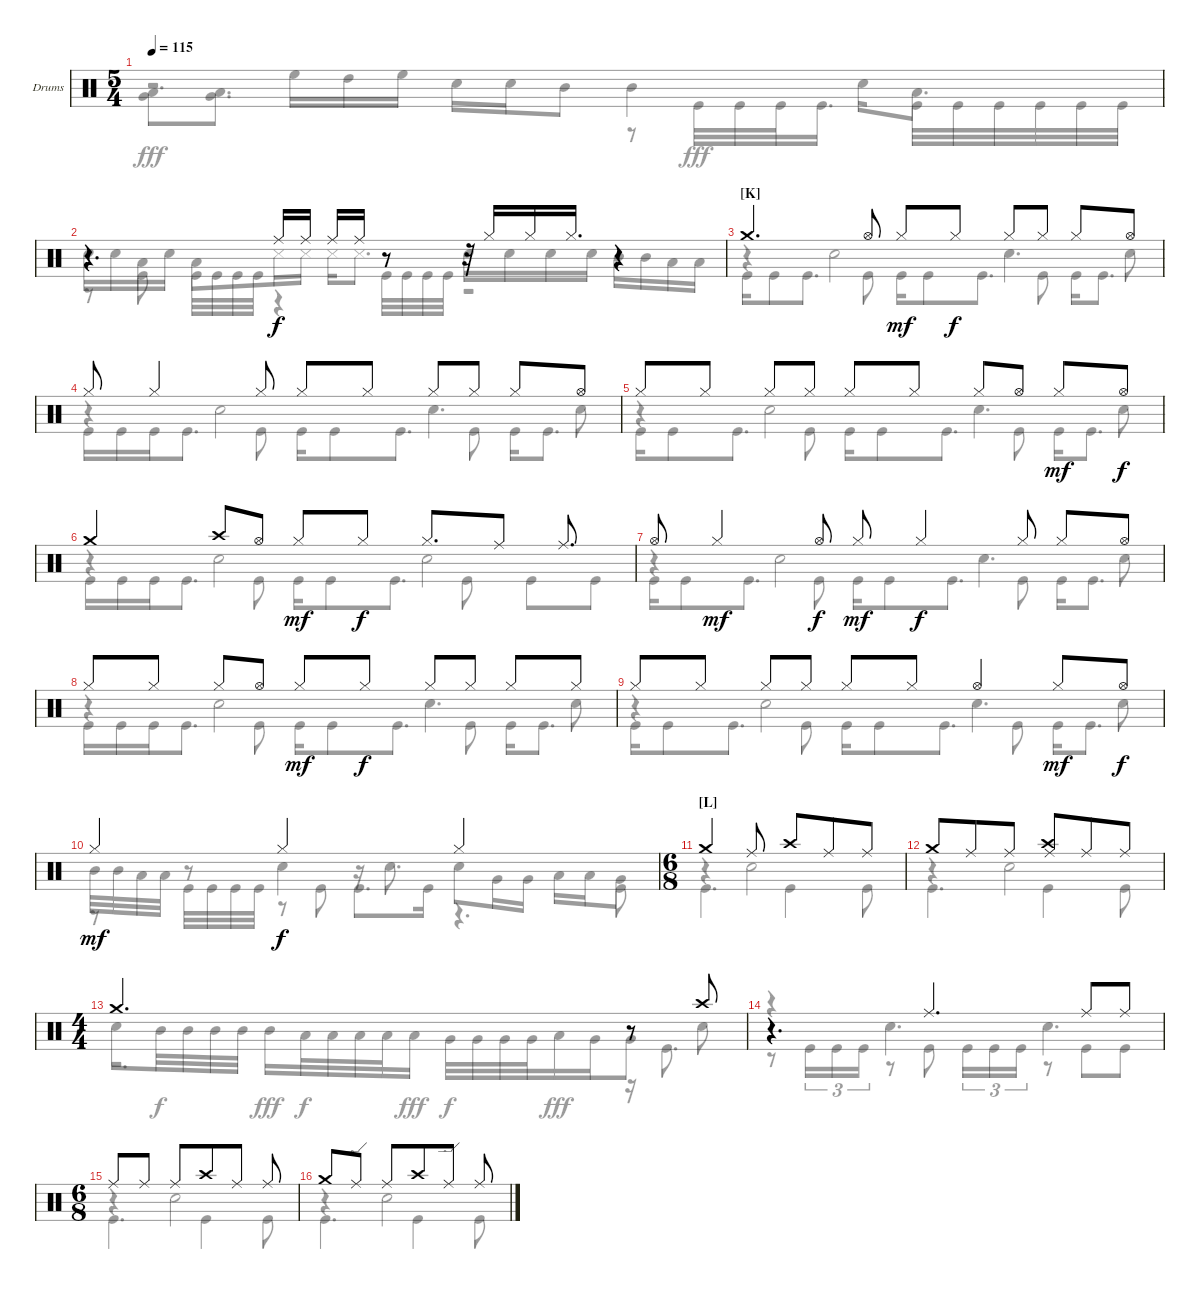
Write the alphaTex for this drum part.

\defaultSystemsLayout 4
\bracketExtendMode groupsimilarinstruments
\firstSystemTrackNameOrientation horizontal
\otherSystemsTrackNameOrientation horizontal
\track ("Drumkit" "Drums") {instrument percussion}
\staff {score}
\articulation defaults
\voice
\ts (5 4)
\tempo 115
\clef neutral
\ks c
|
r.4{d} "Ride (middle)".16 "Ride (middle)".16 "Ride (middle)".16 "Ride (middle)".16 r.8 r.32 "Hi-Hat (closed)".16 "Hi-Hat (closed)".16 "Hi-Hat (closed)".16{d} r.4 |
\section ("K" "")
"Crash medium (hit)".4{d} "Hi-Hat (open)".8 "Hi-Hat (closed)".8{dy mf} "Hi-Hat (closed)".8{dy f} "Hi-Hat (closed)".8 "Hi-Hat (closed)".8 "Hi-Hat (closed)".8 "Hi-Hat (open)".8 |
"Hi-Hat (closed)".8 "Hi-Hat (closed)".4 "Hi-Hat (closed)".8 "Hi-Hat (closed)".8 "Hi-Hat (closed)".8 "Hi-Hat (closed)".8 "Hi-Hat (closed)".8 "Hi-Hat (closed)".8 "Hi-Hat (open)".8 |
"Hi-Hat (closed)".8 "Hi-Hat (closed)".8 "Hi-Hat (closed)".8 "Hi-Hat (closed)".8 "Hi-Hat (closed)".8 "Hi-Hat (closed)".8 "Hi-Hat (closed)".8 "Hi-Hat (open)".8 "Hi-Hat (closed)".8{dy mf} "Hi-Hat (open)".8{dy f} |
"Crash medium (hit)".4 "Crash high (hit)".8 "Hi-Hat (open)".8 "Hi-Hat (closed)".8{dy mf} "Hi-Hat (closed)".8{dy f} "Hi-Hat (closed)".8{d} "Ride (middle)".8 "Ride (middle)".8{d} |
"Hi-Hat (open)".8 "Hi-Hat (closed)".4{dy mf} "Hi-Hat (open)".8{dy f} "Hi-Hat (closed)".8{dy mf} "Hi-Hat (closed)".4{dy f} "Hi-Hat (closed)".8 "Hi-Hat (closed)".8 "Hi-Hat (open)".8 |
"Hi-Hat (closed)".8 "Hi-Hat (closed)".8 "Hi-Hat (closed)".8 "Hi-Hat (open)".8 "Hi-Hat (closed)".8{dy mf} "Hi-Hat (closed)".8{dy f} "Hi-Hat (closed)".8 "Hi-Hat (closed)".8 "Hi-Hat (closed)".8 "Hi-Hat (closed)".8 |
"Hi-Hat (closed)".8 "Hi-Hat (closed)".8 "Hi-Hat (closed)".8 "Hi-Hat (closed)".8 "Hi-Hat (closed)".8 "Hi-Hat (closed)".8 "Hi-Hat (open)".4 "Hi-Hat (closed)".8{dy mf} "Hi-Hat (open)".8{dy f} |
"Hi-Hat (closed)".4{dy mf} "Hi-Hat (closed)".2{dy f} "Hi-Hat (closed)".2 |
\ts (6 8)
\section ("L" "")
"Crash medium (hit)".4 "Ride (middle)".8 "Crash high (hit)".8 "Ride (middle)".8 "Ride (middle)".8 |
"Crash medium (hit)".8 "Ride (middle)".8 "Ride (middle)".8 ("Crash high (hit)" "Ride (middle)").8 "Ride (middle)".8 "Ride (middle)".8 |
\ts (4 4)
\beaming (8 2 2 3 1)
"Crash medium (hit)".2{d} r.8 "Crash high (hit)".8 |
\beaming (8 2 3 3)
r.4{d} "Ride (middle)".4{d} "Ride (middle)".8 "Ride (middle)".8 |
\ts (6 8)
"Ride (middle)".8 "Ride (middle)".8 "Ride (middle)".8 "Crash high (hit)".8 "Ride (middle)".8 "Ride (middle)".8 |
"Crash medium (hit)".8 "Ride (edge)".8 "Ride (middle)".8 "Crash high (hit)".8 "Ride (edge)".8 "Ride (middle)".8
\voice
\clef neutral
\ottava regular
\simile none
\ks c
("Low Tom (hit)" "Very Low Tom (hit)").8{dy fff} ("Low Tom (hit)" "Very Low Tom (hit)").8{d} "High Floor Tom (hit)".16 "High Tom (hit)".16 "High Floor Tom (hit)".16 "Snare (hit) 2".16 "Snare (hit) 2".16 "Mid Tom (hit)".8 "Mid Tom (hit)".4 "Snare (hit) 2".16 "Low Tom (hit)".8{d} |
"Snare (hit) 2".16 "Snare (hit) 2".16 "Low Tom (hit)".16 "Snare (hit) 2".16 "Low Tom (hit)".8 "Snare (side stick) 3".16 "Snare (side stick) 3".16 "Snare (side stick) 3".16 "Snare (side stick) 3".8{d} "Snare (hit) 2".16 "Snare (hit) 2".16 "Snare (hit) 2".16 "Snare (hit) 2".16 "Mid Tom (hit)".16 "Mid Tom (hit)".16 "Low Tom (hit)".16 "Low Tom (hit)".16 |
r.4 "Snare (hit) 2".2 "Snare (hit) 2".4{d} "Snare (hit) 2".8 |
r.4 "Snare (hit) 2".2 "Snare (hit) 2".4{d} "Snare (hit) 2".8 |
r.4 "Snare (hit) 2".2 "Snare (hit) 2".4{d} "Snare (hit) 2".8 |
r.4 "Snare (hit) 2".2 "Snare (hit) 2".2 |
r.4 "Snare (hit) 2".2 "Snare (hit) 2".4{d} "Snare (hit) 2".8 |
r.4 "Snare (hit) 2".2 "Snare (hit) 2".4{d} "Snare (hit) 2".8 |
r.4 "Snare (hit) 2".2 "Snare (hit) 2".4{d} "Snare (hit) 2".8 |
"Mid Tom (hit)".32 "Mid Tom (hit)".32 "Low Tom (hit)".32 "Low Tom (hit)".32 r.8 "Snare (hit) 2".4 r.16 "Snare (hit) 2".8{d} "Snare (hit) 2".8 "Very Low Tom (hit)".16 "Very Low Tom (hit)".16 "Low Tom (hit)".16 "Low Tom (hit)".16 "Very Low Tom (hit)".8 |
r.4 "Snare (hit) 2".2 |
r.4 "Snare (hit) 2".2 |
"Snare (hit) 2".8 "Mid Tom (hit)".32{dy f} "Mid Tom (hit)".32 "Mid Tom (hit)".32 "Mid Tom (hit)".32 "Mid Tom (hit)".16{dy fff} "Low Tom (hit)".32{dy f} "Low Tom (hit)".32 "Low Tom (hit)".32 "Low Tom (hit)".32 "Low Tom (hit)".16{dy fff} "Very Low Tom (hit)".32{dy f} "Very Low Tom (hit)".32 "Very Low Tom (hit)".32 "Very Low Tom (hit)".32 "Low Tom (hit)".16{dy fff} "Very Low Tom (hit)".16 "Very Low Tom (hit)".8 "Snare (hit) 2".8 |
r.4 "Snare (hit) 2".4{d} "Snare (hit) 2".4{d} |
r.4 "Snare (hit) 2".2 |
r.4 "Snare (hit) 2".2
\voice
\clef neutral
\ottava regular
\simile none
\ks c
r.2{d dy fff} r.8 "Kick (hit)".32 "Kick (hit)".32 "Kick (hit)".32 "Kick (hit)".16{d} "Kick (hit)".32 "Kick (hit)".32 "Kick (hit)".32 "Kick (hit)".32 "Kick (hit)".32 "Kick (hit)".32 |
r.8 "Kick (hit)".8 "Kick (hit)".32 "Kick (hit)".32 "Kick (hit)".32 "Kick (hit)".32 r.4 "Kick (hit)".32 "Kick (hit)".32 "Kick (hit)".32 "Kick (hit)".32 r.2 |
"Kick (hit)".16 "Kick (hit)".8 "Kick (hit)".8{d} "Kick (hit)".8 "Kick (hit)".16 "Kick (hit)".8 "Kick (hit)".8{d} "Kick (hit)".8 "Kick (hit)".16 "Kick (hit)".8{d} |
"Kick (hit)".16 "Kick (hit)".16 "Kick (hit)".16 "Kick (hit)".8{d} "Kick (hit)".8 "Kick (hit)".16 "Kick (hit)".8 "Kick (hit)".8{d} "Kick (hit)".8 "Kick (hit)".16 "Kick (hit)".8{d} |
"Kick (hit)".16 "Kick (hit)".8 "Kick (hit)".8{d} "Kick (hit)".8 "Kick (hit)".16 "Kick (hit)".8 "Kick (hit)".8{d} "Kick (hit)".8 "Kick (hit)".16 "Kick (hit)".8{d} |
"Kick (hit)".16 "Kick (hit)".16 "Kick (hit)".16 "Kick (hit)".8{d} "Kick (hit)".8 "Kick (hit)".16 "Kick (hit)".8 "Kick (hit)".8{d} "Kick (hit)".8 "Kick (hit)".8 "Kick (hit)".8 |
"Kick (hit)".16 "Kick (hit)".8 "Kick (hit)".8{d} "Kick (hit)".8 "Kick (hit)".16 "Kick (hit)".8 "Kick (hit)".8{d} "Kick (hit)".8 "Kick (hit)".16 "Kick (hit)".8{d} |
"Kick (hit)".16 "Kick (hit)".16 "Kick (hit)".16 "Kick (hit)".8{d} "Kick (hit)".8 "Kick (hit)".16 "Kick (hit)".8 "Kick (hit)".8{d} "Kick (hit)".8 "Kick (hit)".16 "Kick (hit)".8{d} |
"Kick (hit)".16 "Kick (hit)".8 "Kick (hit)".8{d} "Kick (hit)".8 "Kick (hit)".16 "Kick (hit)".8 "Kick (hit)".8{d} "Kick (hit)".8 "Kick (hit)".16 "Kick (hit)".8{d} |
r.8 "Kick (hit)".32 "Kick (hit)".32 "Kick (hit)".32 "Kick (hit)".32 r.8 "Kick (hit)".8 "Kick (hit)".8{d} "Kick (hit)".16 r.4{d} "Kick (hit)".8 |
"Kick (hit)".4{d} "Kick (hit)".4 "Kick (hit)".8 |
"Kick (hit)".4{d} "Kick (hit)".4 "Kick (hit)".8 |
r.2{d} r.16 "Kick (hit)".8{d} |
r.8 "Kick (hit)".16{tu (3 2)} "Kick (hit)".16{tu (3 2)} "Kick (hit)".16{tu (3 2)} r.8 "Kick (hit)".8 "Kick (hit)".16{tu (3 2)} "Kick (hit)".16{tu (3 2)} "Kick (hit)".16{tu (3 2)} r.8 "Kick (hit)".8 "Kick (hit)".8 |
"Kick (hit)".4{d} "Kick (hit)".4 "Kick (hit)".8 |
"Kick (hit)".4{d} "Kick (hit)".4 "Kick (hit)".8
